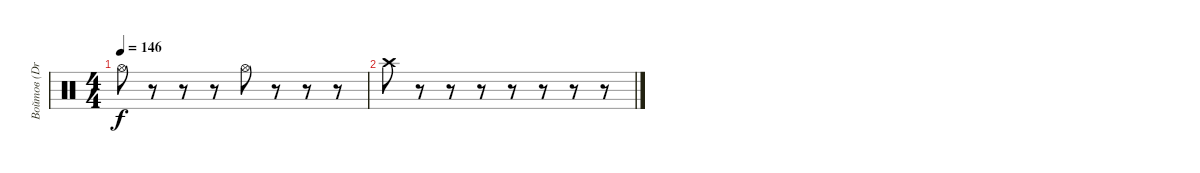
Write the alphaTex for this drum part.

\track ("Войтов (Drums)" "Войтов (Dr") {instrument percussion}
\staff {score}
\articulation defaults
\ts (4 4)
\tempo 146
\clef neutral
\ks c "Hi-Hat (open)".8{dy f}
r.8 r.8 r.8 "Hi-Hat (open)".8 r.8 r.8 r.8 |
"Crash high (hit)".8 r.8 r.8 r.8 r.8 r.8 r.8 r.8
